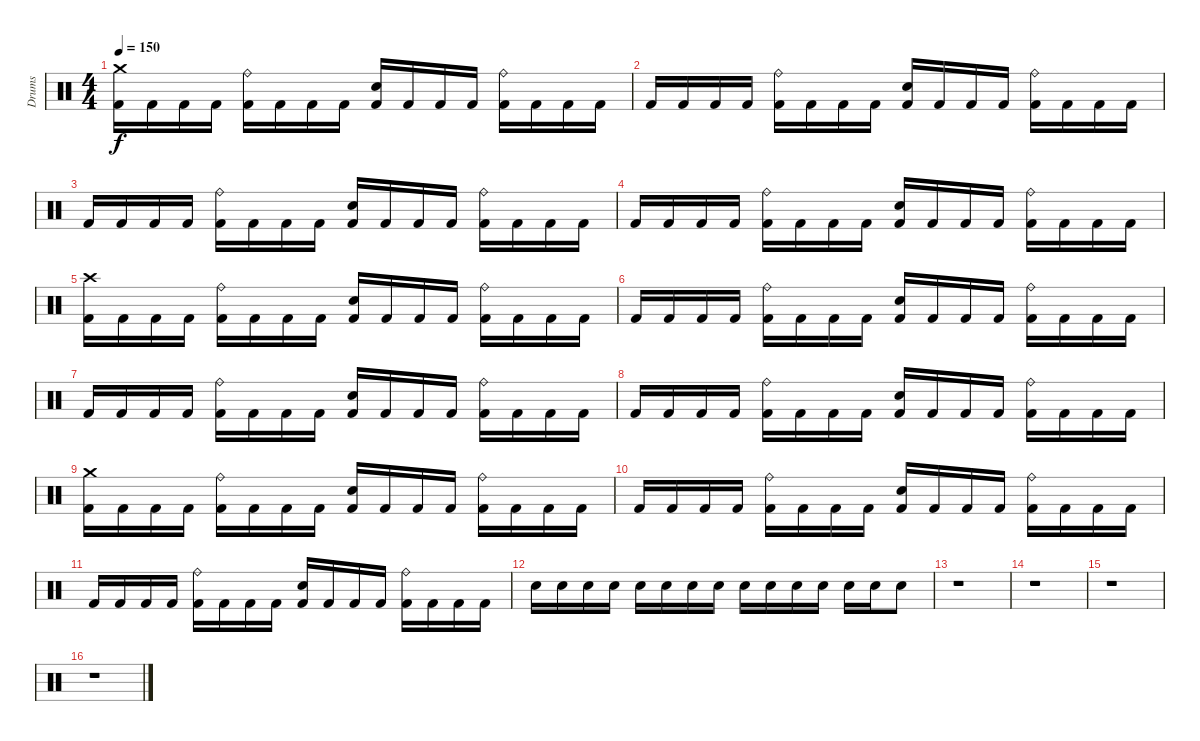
\track ("Drums" "Drums") {instrument percussion}
\staff {score}
\articulation defaults
\ts (4 4)
\tempo 150
\clef neutral
\ks c
("Crash medium (hit)" "Kick (hit) 2").16{dy f} "Kick (hit) 2".16 "Kick (hit) 2".16 "Kick (hit) 2".16 ("Ride (bell)" "Kick (hit) 2").16 "Kick (hit) 2".16 "Kick (hit) 2".16 "Kick (hit) 2".16 ("Snare (hit) 2" "Kick (hit) 2").16 "Kick (hit) 2".16 "Kick (hit) 2".16 "Kick (hit) 2".16 ("Ride (bell)" "Kick (hit) 2").16 "Kick (hit) 2".16 "Kick (hit) 2".16 "Kick (hit) 2".16 |
"Kick (hit) 2".16 "Kick (hit) 2".16 "Kick (hit) 2".16 "Kick (hit) 2".16 ("Ride (bell)" "Kick (hit) 2").16 "Kick (hit) 2".16 "Kick (hit) 2".16 "Kick (hit) 2".16 ("Snare (hit) 2" "Kick (hit) 2").16 "Kick (hit) 2".16 "Kick (hit) 2".16 "Kick (hit) 2".16 ("Ride (bell)" "Kick (hit) 2").16 "Kick (hit) 2".16 "Kick (hit) 2".16 "Kick (hit) 2".16 |
"Kick (hit) 2".16 "Kick (hit) 2".16 "Kick (hit) 2".16 "Kick (hit) 2".16 ("Ride (bell)" "Kick (hit) 2").16 "Kick (hit) 2".16 "Kick (hit) 2".16 "Kick (hit) 2".16 ("Snare (hit) 2" "Kick (hit) 2").16 "Kick (hit) 2".16 "Kick (hit) 2".16 "Kick (hit) 2".16 ("Ride (bell)" "Kick (hit) 2").16 "Kick (hit) 2".16 "Kick (hit) 2".16 "Kick (hit) 2".16 |
"Kick (hit) 2".16 "Kick (hit) 2".16 "Kick (hit) 2".16 "Kick (hit) 2".16 ("Ride (bell)" "Kick (hit) 2").16 "Kick (hit) 2".16 "Kick (hit) 2".16 "Kick (hit) 2".16 ("Snare (hit) 2" "Kick (hit) 2").16 "Kick (hit) 2".16 "Kick (hit) 2".16 "Kick (hit) 2".16 ("Ride (bell)" "Kick (hit) 2").16 "Kick (hit) 2".16 "Kick (hit) 2".16 "Kick (hit) 2".16 |
("Crash high (hit)" "Kick (hit) 2").16 "Kick (hit) 2".16 "Kick (hit) 2".16 "Kick (hit) 2".16 ("Ride (bell)" "Kick (hit) 2").16 "Kick (hit) 2".16 "Kick (hit) 2".16 "Kick (hit) 2".16 ("Snare (hit) 2" "Kick (hit) 2").16 "Kick (hit) 2".16 "Kick (hit) 2".16 "Kick (hit) 2".16 ("Ride (bell)" "Kick (hit) 2").16 "Kick (hit) 2".16 "Kick (hit) 2".16 "Kick (hit) 2".16 |
"Kick (hit) 2".16 "Kick (hit) 2".16 "Kick (hit) 2".16 "Kick (hit) 2".16 ("Ride (bell)" "Kick (hit) 2").16 "Kick (hit) 2".16 "Kick (hit) 2".16 "Kick (hit) 2".16 ("Snare (hit) 2" "Kick (hit) 2").16 "Kick (hit) 2".16 "Kick (hit) 2".16 "Kick (hit) 2".16 ("Ride (bell)" "Kick (hit) 2").16 "Kick (hit) 2".16 "Kick (hit) 2".16 "Kick (hit) 2".16 |
"Kick (hit) 2".16 "Kick (hit) 2".16 "Kick (hit) 2".16 "Kick (hit) 2".16 ("Ride (bell)" "Kick (hit) 2").16 "Kick (hit) 2".16 "Kick (hit) 2".16 "Kick (hit) 2".16 ("Snare (hit) 2" "Kick (hit) 2").16 "Kick (hit) 2".16 "Kick (hit) 2".16 "Kick (hit) 2".16 ("Ride (bell)" "Kick (hit) 2").16 "Kick (hit) 2".16 "Kick (hit) 2".16 "Kick (hit) 2".16 |
"Kick (hit) 2".16 "Kick (hit) 2".16 "Kick (hit) 2".16 "Kick (hit) 2".16 ("Ride (bell)" "Kick (hit) 2").16 "Kick (hit) 2".16 "Kick (hit) 2".16 "Kick (hit) 2".16 ("Snare (hit) 2" "Kick (hit) 2").16 "Kick (hit) 2".16 "Kick (hit) 2".16 "Kick (hit) 2".16 ("Ride (bell)" "Kick (hit) 2").16 "Kick (hit) 2".16 "Kick (hit) 2".16 "Kick (hit) 2".16 |
("Crash medium (hit)" "Kick (hit) 2").16 "Kick (hit) 2".16 "Kick (hit) 2".16 "Kick (hit) 2".16 ("Ride (bell)" "Kick (hit) 2").16 "Kick (hit) 2".16 "Kick (hit) 2".16 "Kick (hit) 2".16 ("Snare (hit) 2" "Kick (hit) 2").16 "Kick (hit) 2".16 "Kick (hit) 2".16 "Kick (hit) 2".16 ("Ride (bell)" "Kick (hit) 2").16 "Kick (hit) 2".16 "Kick (hit) 2".16 "Kick (hit) 2".16 |
"Kick (hit) 2".16 "Kick (hit) 2".16 "Kick (hit) 2".16 "Kick (hit) 2".16 ("Ride (bell)" "Kick (hit) 2").16 "Kick (hit) 2".16 "Kick (hit) 2".16 "Kick (hit) 2".16 ("Snare (hit) 2" "Kick (hit) 2").16 "Kick (hit) 2".16 "Kick (hit) 2".16 "Kick (hit) 2".16 ("Ride (bell)" "Kick (hit) 2").16 "Kick (hit) 2".16 "Kick (hit) 2".16 "Kick (hit) 2".16 |
"Kick (hit) 2".16 "Kick (hit) 2".16 "Kick (hit) 2".16 "Kick (hit) 2".16 ("Ride (bell)" "Kick (hit) 2").16 "Kick (hit) 2".16 "Kick (hit) 2".16 "Kick (hit) 2".16 ("Snare (hit) 2" "Kick (hit) 2").16 "Kick (hit) 2".16 "Kick (hit) 2".16 "Kick (hit) 2".16 ("Ride (bell)" "Kick (hit) 2").16 "Kick (hit) 2".16 "Kick (hit) 2".16 "Kick (hit) 2".16 |
"Snare (hit) 2".16 "Snare (hit) 2".16 "Snare (hit) 2".16 "Snare (hit) 2".16 "Snare (hit) 2".16 "Snare (hit) 2".16 "Snare (hit) 2".16 "Snare (hit) 2".16 "Snare (hit) 2".16 "Snare (hit) 2".16 "Snare (hit) 2".16 "Snare (hit) 2".16 "Snare (hit) 2".16 "Snare (hit) 2".16 "Snare (hit) 2".8 |
r.1 |
r.1 |
r.1 |
r.1
